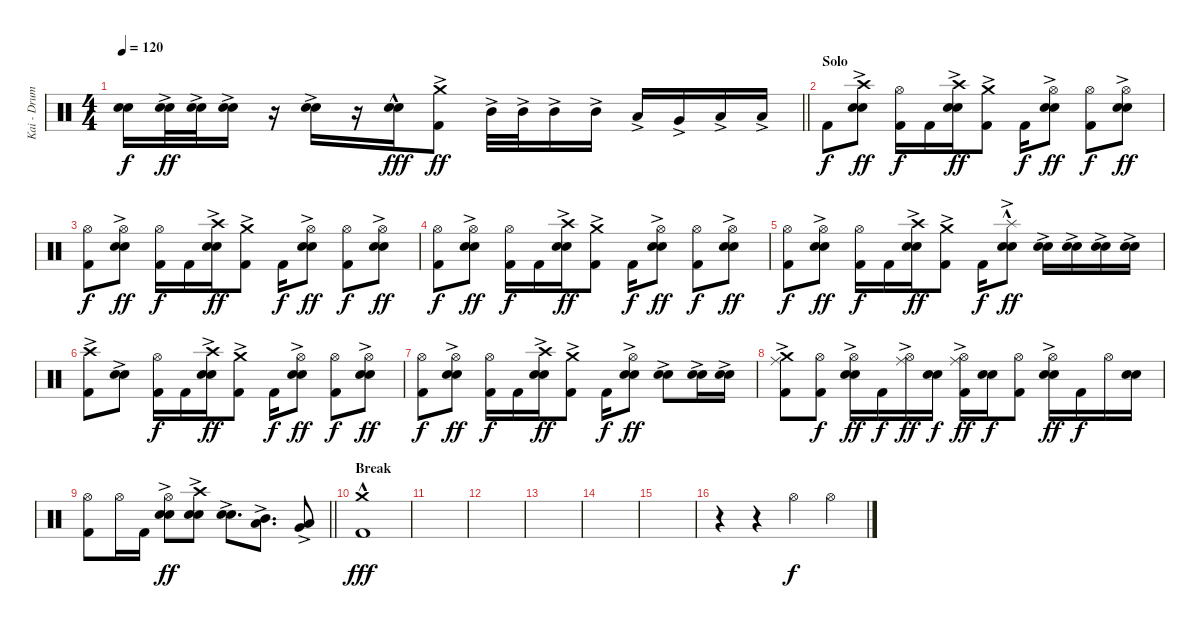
\track ("Kai - Drums" "Kai - Drum") {instrument percussion}
\staff {score}
\articulation defaults
\ts (4 4)
\tempo 120
\clef neutral
\barLineRight lightlight
\ks c
("Snare (hit)"{t} "Snare (hit)"{t}).16{dy f} ("Electric Snare (hit)"{ac} "Snare (hit) 2").32{dy ff} ("Electric Snare (hit)"{ac} "Snare (hit) 2").32 ("Electric Snare (hit)"{ac} "Snare (hit) 2").16 r.16 ("Electric Snare (hit)"{ac} "Snare (hit) 2"{ac}).16 r.16 ("Electric Snare (hit)"{hac} "Snare (hit) 2").16{dy fff} ("Crash medium (hit)"{ac} "Kick (hit) 2").8{dy ff} "Mid Tom (hit)"{ac}.32 "Mid Tom (hit)"{ac}.32 "Mid Tom (hit)"{ac}.16 "Mid Tom (hit)"{ac}.16 "Low Tom (hit)"{ac}.16 "Very Low Tom (hit)"{ac}.16 "Low Floor Tom (hit)"{ac}.16 "Low Floor Tom (hit)"{ac}.16 |
\section ("" "Solo")
"Kick (hit) 2".8{dy f} ("Crash high (hit)"{ac} "Electric Snare (hit)"{ac} "Snare (hit) 2"{ac}).8{dy ff} ("Hi-Hat (open)" "Kick (hit) 2").16{dy f} "Kick (hit) 2".16 ("Crash high (hit)"{ac} "Electric Snare (hit)"{ac} "Snare (hit) 2"{ac}).16{dy ff} ("Crash medium (hit)"{ac} "Kick (hit) 2").8 "Kick (hit) 2".16{dy f} ("Hi-Hat (open)" "Electric Snare (hit)"{ac} "Snare (hit) 2"{ac}).8{dy ff} ("Hi-Hat (open)" "Kick (hit) 2").8{dy f} ("Hi-Hat (open)" "Electric Snare (hit)"{ac} "Snare (hit) 2"{ac}).8{dy ff} |
("Hi-Hat (open)" "Kick (hit) 2").8{dy f} ("Hi-Hat (open)" "Electric Snare (hit)"{ac} "Snare (hit) 2"{ac}).8{dy ff} ("Hi-Hat (open)" "Kick (hit) 2").16{dy f} "Kick (hit) 2".16 ("Crash high (hit)"{ac} "Electric Snare (hit)"{ac} "Snare (hit) 2"{ac}).16{dy ff} ("Crash medium (hit)"{ac} "Kick (hit) 2").8 "Kick (hit) 2".16{dy f} ("Hi-Hat (open)" "Electric Snare (hit)"{ac} "Snare (hit) 2"{ac}).8{dy ff} ("Hi-Hat (open)" "Kick (hit) 2").8{dy f} ("Hi-Hat (open)" "Electric Snare (hit)"{ac} "Snare (hit) 2"{ac}).8{dy ff} |
("Hi-Hat (open)" "Kick (hit) 2").8{dy f} ("Hi-Hat (open)" "Electric Snare (hit)"{ac} "Snare (hit) 2"{ac}).8{dy ff} ("Hi-Hat (open)" "Kick (hit) 2").16{dy f} "Kick (hit) 2".16 ("Crash high (hit)"{ac} "Electric Snare (hit)"{ac} "Snare (hit) 2"{ac}).16{dy ff} ("Crash medium (hit)"{ac} "Kick (hit) 2").8 "Kick (hit) 2".16{dy f} ("Hi-Hat (open)" "Electric Snare (hit)"{ac} "Snare (hit) 2"{ac}).8{dy ff} ("Hi-Hat (open)" "Kick (hit) 2").8{dy f} ("Hi-Hat (open)" "Electric Snare (hit)"{ac} "Snare (hit) 2"{ac}).8{dy ff} |
("Hi-Hat (open)" "Kick (hit) 2").8{dy f} ("Hi-Hat (open)" "Electric Snare (hit)"{ac} "Snare (hit) 2"{ac}).8{dy ff} ("Hi-Hat (open)" "Kick (hit) 2").16{dy f} "Kick (hit) 2".16 ("Crash high (hit)"{ac} "Electric Snare (hit)"{ac} "Snare (hit) 2"{ac}).16{dy ff} ("Crash medium (hit)"{ac} "Kick (hit) 2").8 "Kick (hit) 2".16{dy f} ("Splash (hit)"{hac} "Electric Snare (hit)"{ac} "Snare (hit) 2"{ac}).8{dy ff} ("Electric Snare (hit)"{ac} "Snare (hit) 2"{ac}).16 ("Electric Snare (hit)"{ac} "Snare (hit) 2"{ac}).16 ("Electric Snare (hit)"{ac} "Snare (hit) 2"{ac}).16 ("Electric Snare (hit)"{ac} "Snare (hit) 2"{ac}).16 |
("Crash high (hit)"{ac} "Kick (hit) 2").8 ("Electric Snare (hit)"{ac} "Snare (hit) 2"{ac}).8 ("Hi-Hat (open)" "Kick (hit) 2").16{dy f} "Kick (hit) 2".16 ("Crash high (hit)"{ac} "Electric Snare (hit)"{ac} "Snare (hit) 2"{ac}).16{dy ff} ("Crash medium (hit)"{ac} "Kick (hit) 2").8 "Kick (hit) 2".16{dy f} ("Hi-Hat (open)" "Electric Snare (hit)"{ac} "Snare (hit) 2"{ac}).8{dy ff} ("Hi-Hat (open)" "Kick (hit) 2").8{dy f} ("Hi-Hat (open)" "Electric Snare (hit)"{ac} "Snare (hit) 2"{ac}).8{dy ff} |
("Hi-Hat (open)" "Kick (hit) 2").8{dy f} ("Hi-Hat (open)" "Electric Snare (hit)"{ac} "Snare (hit) 2"{ac}).8{dy ff} ("Hi-Hat (open)" "Kick (hit) 2").16{dy f} "Kick (hit) 2".16 ("Crash high (hit)"{ac} "Electric Snare (hit)"{ac} "Snare (hit) 2"{ac}).16{dy ff} ("Crash medium (hit)"{ac} "Kick (hit) 2").8 "Kick (hit) 2".16{dy f} ("Hi-Hat (open)" "Electric Snare (hit)"{ac} "Snare (hit) 2"{ac}).8{dy ff} ("Electric Snare (hit)"{ac} "Snare (hit) 2"{ac}).8 ("Electric Snare (hit)"{ac} "Snare (hit) 2"{ac}).16 ("Electric Snare (hit)"{ac} "Snare (hit) 2"{ac}).16 |
("Crash medium (hit)"{ac} "Ride (middle)"{ac} "Kick (hit) 2").8 ("Hi-Hat (open)" "Kick (hit) 2").8{dy f} ("Hi-Hat (open)" "Electric Snare (hit)"{ac} "Snare (hit) 2").16{dy ff} "Kick (hit) 2".16{dy f} ("Hi-Hat (open)" "Ride (middle)"{ac}).16{dy ff} ("Electric Snare (hit)" "Snare (hit) 2").16{dy f} ("Hi-Hat (open)" "Ride (middle)"{ac} "Kick (hit) 2").16{dy ff} ("Electric Snare (hit)" "Snare (hit) 2").16{dy f} ("Hi-Hat (open)" "Kick (hit) 2").8 ("Hi-Hat (open)" "Electric Snare (hit)"{ac} "Snare (hit) 2").16{dy ff} "Kick (hit) 2".16{dy f} "Hi-Hat (open)".16 ("Electric Snare (hit)" "Snare (hit) 2").16 |
\barLineRight lightlight
("Hi-Hat (open)" "Kick (hit) 2").8 "Hi-Hat (open)".16 "Kick (hit) 2".16 ("Hi-Hat (open)" "Electric Snare (hit)"{ac} "Snare (hit) 2").8{dy ff} ("Crash high (hit)"{ac} "Electric Snare (hit)"{ac} "Snare (hit) 2").8 ("Electric Snare (hit)"{ac} "Snare (hit) 2").8{d} ("Mid Tom (hit)"{ac} "Low Tom (hit)").8{d} ("Low Tom (hit)"{ac} "Very Low Tom (hit)").8 |
\section ("" "Break")
("Crash medium (hit)"{hac} "Kick (hit) 2").1{dy fff} |
|
|
|
|
|
r.4 r.4 "Hi-Hat (open)".4{dy f} "Hi-Hat (open)".4
